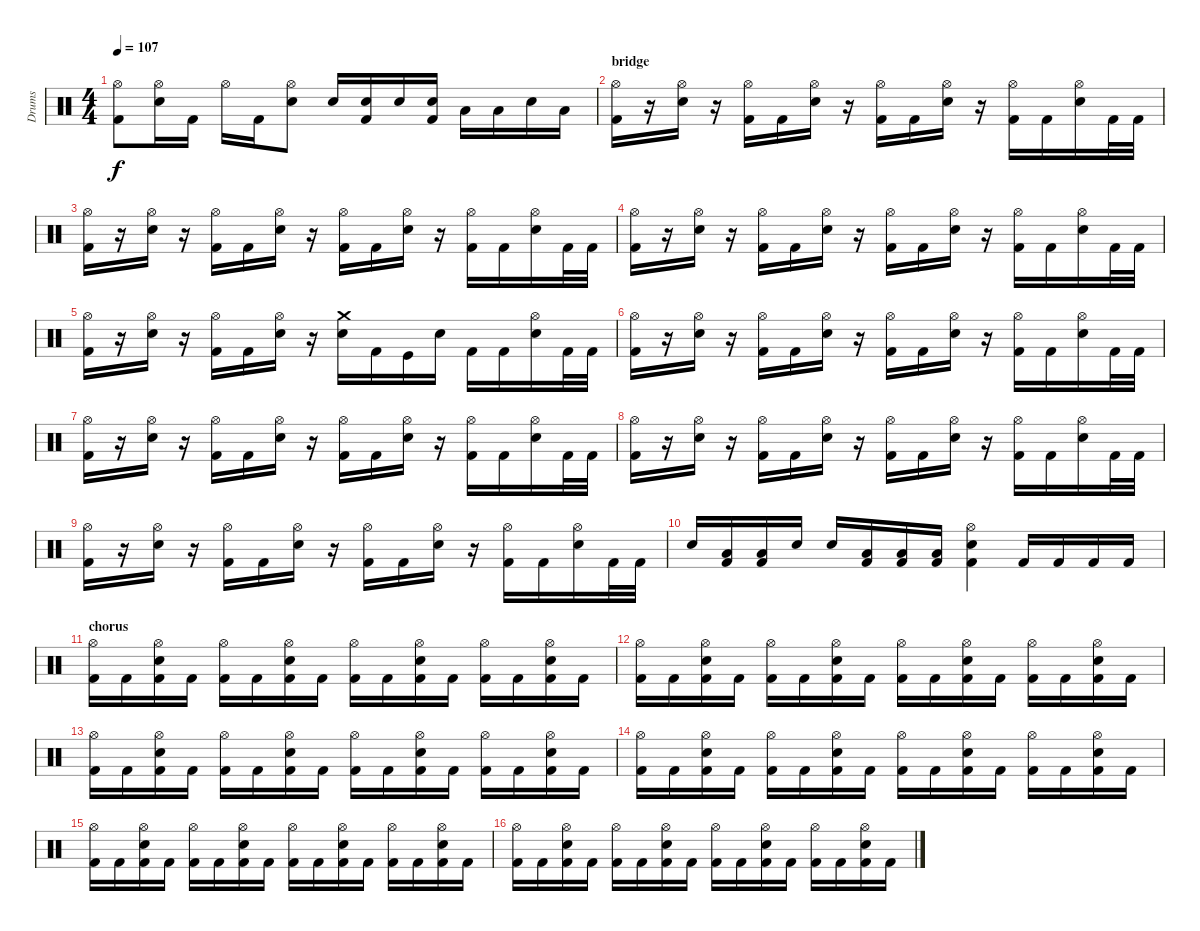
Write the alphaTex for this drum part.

\track ("Drums" "Drums") {instrument percussion}
\staff {score}
\articulation defaults
\ts (4 4)
\tempo 107
\clef neutral
\ks c
("Hi-Hat (open)" "Kick (hit) 2").8{dy f} ("Hi-Hat (open)" "Snare (hit) 2").16 "Kick (hit) 2".16 "Hi-Hat (open)".16 "Kick (hit) 2".16 ("Hi-Hat (open)" "Snare (hit) 2").8 "Snare (hit) 2".16 ("Snare (hit) 2" "Kick (hit) 2").16 "Snare (hit) 2".16 ("Snare (hit) 2" "Kick (hit) 2").16 "Low Tom (hit)".16 "Low Tom (hit)".16 "Snare (hit) 2".16 "Low Tom (hit)".16 |
\section ("" "bridge")
("Hi-Hat (open)" "Kick (hit) 2").16 r.16 ("Hi-Hat (open)" "Snare (hit) 2").16 r.16 ("Hi-Hat (open)" "Kick (hit) 2").16 "Kick (hit) 2".16 ("Hi-Hat (open)" "Snare (hit) 2").16 r.16 ("Hi-Hat (open)" "Kick (hit) 2").16 "Kick (hit) 2".16 ("Hi-Hat (open)" "Snare (hit) 2").16 r.16 ("Hi-Hat (open)" "Kick (hit) 2").16 "Kick (hit) 2".16 ("Hi-Hat (open)" "Snare (hit) 2").16 "Kick (hit) 2".32 "Kick (hit) 2".32 |
("Hi-Hat (open)" "Kick (hit) 2").16 r.16 ("Hi-Hat (open)" "Snare (hit) 2").16 r.16 ("Hi-Hat (open)" "Kick (hit) 2").16 "Kick (hit) 2".16 ("Hi-Hat (open)" "Snare (hit) 2").16 r.16 ("Hi-Hat (open)" "Kick (hit) 2").16 "Kick (hit) 2".16 ("Hi-Hat (open)" "Snare (hit) 2").16 r.16 ("Hi-Hat (open)" "Kick (hit) 2").16 "Kick (hit) 2".16 ("Hi-Hat (open)" "Snare (hit) 2").16 "Kick (hit) 2".32 "Kick (hit) 2".32 |
("Hi-Hat (open)" "Kick (hit) 2").16 r.16 ("Hi-Hat (open)" "Snare (hit) 2").16 r.16 ("Hi-Hat (open)" "Kick (hit) 2").16 "Kick (hit) 2".16 ("Hi-Hat (open)" "Snare (hit) 2").16 r.16 ("Hi-Hat (open)" "Kick (hit) 2").16 "Kick (hit) 2".16 ("Hi-Hat (open)" "Snare (hit) 2").16 r.16 ("Hi-Hat (open)" "Kick (hit) 2").16 "Kick (hit) 2".16 ("Hi-Hat (open)" "Snare (hit) 2").16 "Kick (hit) 2".32 "Kick (hit) 2".32 |
("Hi-Hat (open)" "Kick (hit) 2").16 r.16 ("Hi-Hat (open)" "Snare (hit) 2").16 r.16 ("Hi-Hat (open)" "Kick (hit) 2").16 "Kick (hit) 2".16 ("Hi-Hat (open)" "Snare (hit) 2").16 r.16 ("Crash medium (hit)" "Snare (hit) 2").16 "Kick (hit) 2".16 "Kick (hit)".16 "Snare (hit) 2".16 "Kick (hit) 2".16 "Kick (hit) 2".16 ("Hi-Hat (open)" "Snare (hit) 2").16 "Kick (hit) 2".32 "Kick (hit) 2".32 |
("Hi-Hat (open)" "Kick (hit) 2").16 r.16 ("Hi-Hat (open)" "Snare (hit) 2").16 r.16 ("Hi-Hat (open)" "Kick (hit) 2").16 "Kick (hit) 2".16 ("Hi-Hat (open)" "Snare (hit) 2").16 r.16 ("Hi-Hat (open)" "Kick (hit) 2").16 "Kick (hit) 2".16 ("Hi-Hat (open)" "Snare (hit) 2").16 r.16 ("Hi-Hat (open)" "Kick (hit) 2").16 "Kick (hit) 2".16 ("Hi-Hat (open)" "Snare (hit) 2").16 "Kick (hit) 2".32 "Kick (hit) 2".32 |
("Hi-Hat (open)" "Kick (hit) 2").16 r.16 ("Hi-Hat (open)" "Snare (hit) 2").16 r.16 ("Hi-Hat (open)" "Kick (hit) 2").16 "Kick (hit) 2".16 ("Hi-Hat (open)" "Snare (hit) 2").16 r.16 ("Hi-Hat (open)" "Kick (hit) 2").16 "Kick (hit) 2".16 ("Hi-Hat (open)" "Snare (hit) 2").16 r.16 ("Hi-Hat (open)" "Kick (hit) 2").16 "Kick (hit) 2".16 ("Hi-Hat (open)" "Snare (hit) 2").16 "Kick (hit) 2".32 "Kick (hit) 2".32 |
("Hi-Hat (open)" "Kick (hit) 2").16 r.16 ("Hi-Hat (open)" "Snare (hit) 2").16 r.16 ("Hi-Hat (open)" "Kick (hit) 2").16 "Kick (hit) 2".16 ("Hi-Hat (open)" "Snare (hit) 2").16 r.16 ("Hi-Hat (open)" "Kick (hit) 2").16 "Kick (hit) 2".16 ("Hi-Hat (open)" "Snare (hit) 2").16 r.16 ("Hi-Hat (open)" "Kick (hit) 2").16 "Kick (hit) 2".16 ("Hi-Hat (open)" "Snare (hit) 2").16 "Kick (hit) 2".32 "Kick (hit) 2".32 |
("Hi-Hat (open)" "Kick (hit) 2").16 r.16 ("Hi-Hat (open)" "Snare (hit) 2").16 r.16 ("Hi-Hat (open)" "Kick (hit) 2").16 "Kick (hit) 2".16 ("Hi-Hat (open)" "Snare (hit) 2").16 r.16 ("Hi-Hat (open)" "Kick (hit) 2").16 "Kick (hit) 2".16 ("Hi-Hat (open)" "Snare (hit) 2").16 r.16 ("Hi-Hat (open)" "Kick (hit) 2").16 "Kick (hit) 2".16 ("Hi-Hat (open)" "Snare (hit) 2").16 "Kick (hit) 2".32 "Kick (hit) 2".32 |
"Snare (hit) 2".16 ("Low Tom (hit)" "Kick (hit) 2").16 ("Low Tom (hit)" "Kick (hit) 2").16 "Snare (hit) 2".16 "Snare (hit) 2".16 ("Low Tom (hit)" "Kick (hit) 2").16 ("Low Tom (hit)" "Kick (hit) 2").16 ("Low Tom (hit)" "Kick (hit) 2").16 ("Hi-Hat (open)" "Snare (hit) 2" "Kick (hit) 2").4 "Kick (hit) 2".16 "Kick (hit) 2".16 "Kick (hit) 2".16 "Kick (hit) 2".16 |
\section ("" "chorus")
("Hi-Hat (open)" "Kick (hit) 2").16 "Kick (hit) 2".16 ("Hi-Hat (open)" "Snare (hit) 2" "Kick (hit) 2").16 "Kick (hit) 2".16 ("Hi-Hat (open)" "Kick (hit) 2").16 "Kick (hit) 2".16 ("Hi-Hat (open)" "Snare (hit) 2" "Kick (hit) 2").16 "Kick (hit) 2".16 ("Hi-Hat (open)" "Kick (hit) 2").16 "Kick (hit) 2".16 ("Hi-Hat (open)" "Snare (hit) 2" "Kick (hit) 2").16 "Kick (hit) 2".16 ("Hi-Hat (open)" "Kick (hit) 2").16 "Kick (hit) 2".16 ("Hi-Hat (open)" "Snare (hit) 2" "Kick (hit) 2").16 "Kick (hit) 2".16 |
("Hi-Hat (open)" "Kick (hit) 2").16 "Kick (hit) 2".16 ("Hi-Hat (open)" "Snare (hit) 2" "Kick (hit) 2").16 "Kick (hit) 2".16 ("Hi-Hat (open)" "Kick (hit) 2").16 "Kick (hit) 2".16 ("Hi-Hat (open)" "Snare (hit) 2" "Kick (hit) 2").16 "Kick (hit) 2".16 ("Hi-Hat (open)" "Kick (hit) 2").16 "Kick (hit) 2".16 ("Hi-Hat (open)" "Snare (hit) 2" "Kick (hit) 2").16 "Kick (hit) 2".16 ("Hi-Hat (open)" "Kick (hit) 2").16 "Kick (hit) 2".16 ("Hi-Hat (open)" "Snare (hit) 2" "Kick (hit) 2").16 "Kick (hit) 2".16 |
("Hi-Hat (open)" "Kick (hit) 2").16 "Kick (hit) 2".16 ("Hi-Hat (open)" "Snare (hit) 2" "Kick (hit) 2").16 "Kick (hit) 2".16 ("Hi-Hat (open)" "Kick (hit) 2").16 "Kick (hit) 2".16 ("Hi-Hat (open)" "Snare (hit) 2" "Kick (hit) 2").16 "Kick (hit) 2".16 ("Hi-Hat (open)" "Kick (hit) 2").16 "Kick (hit) 2".16 ("Hi-Hat (open)" "Snare (hit) 2" "Kick (hit) 2").16 "Kick (hit) 2".16 ("Hi-Hat (open)" "Kick (hit) 2").16 "Kick (hit) 2".16 ("Hi-Hat (open)" "Snare (hit) 2" "Kick (hit) 2").16 "Kick (hit) 2".16 |
("Hi-Hat (open)" "Kick (hit) 2").16 "Kick (hit) 2".16 ("Hi-Hat (open)" "Snare (hit) 2" "Kick (hit) 2").16 "Kick (hit) 2".16 ("Hi-Hat (open)" "Kick (hit) 2").16 "Kick (hit) 2".16 ("Hi-Hat (open)" "Snare (hit) 2" "Kick (hit) 2").16 "Kick (hit) 2".16 ("Hi-Hat (open)" "Kick (hit) 2").16 "Kick (hit) 2".16 ("Hi-Hat (open)" "Snare (hit) 2" "Kick (hit) 2").16 "Kick (hit) 2".16 ("Hi-Hat (open)" "Kick (hit) 2").16 "Kick (hit) 2".16 ("Hi-Hat (open)" "Snare (hit) 2" "Kick (hit) 2").16 "Kick (hit) 2".16 |
("Hi-Hat (open)" "Kick (hit) 2").16 "Kick (hit) 2".16 ("Hi-Hat (open)" "Snare (hit) 2" "Kick (hit) 2").16 "Kick (hit) 2".16 ("Hi-Hat (open)" "Kick (hit) 2").16 "Kick (hit) 2".16 ("Hi-Hat (open)" "Snare (hit) 2" "Kick (hit) 2").16 "Kick (hit) 2".16 ("Hi-Hat (open)" "Kick (hit) 2").16 "Kick (hit) 2".16 ("Hi-Hat (open)" "Snare (hit) 2" "Kick (hit) 2").16 "Kick (hit) 2".16 ("Hi-Hat (open)" "Kick (hit) 2").16 "Kick (hit) 2".16 ("Hi-Hat (open)" "Snare (hit) 2" "Kick (hit) 2").16 "Kick (hit) 2".16 |
("Hi-Hat (open)" "Kick (hit) 2").16 "Kick (hit) 2".16 ("Hi-Hat (open)" "Snare (hit) 2" "Kick (hit) 2").16 "Kick (hit) 2".16 ("Hi-Hat (open)" "Kick (hit) 2").16 "Kick (hit) 2".16 ("Hi-Hat (open)" "Snare (hit) 2" "Kick (hit) 2").16 "Kick (hit) 2".16 ("Hi-Hat (open)" "Kick (hit) 2").16 "Kick (hit) 2".16 ("Hi-Hat (open)" "Snare (hit) 2" "Kick (hit) 2").16 "Kick (hit) 2".16 ("Hi-Hat (open)" "Kick (hit) 2").16 "Kick (hit) 2".16 ("Hi-Hat (open)" "Snare (hit) 2" "Kick (hit) 2").16 "Kick (hit) 2".16
